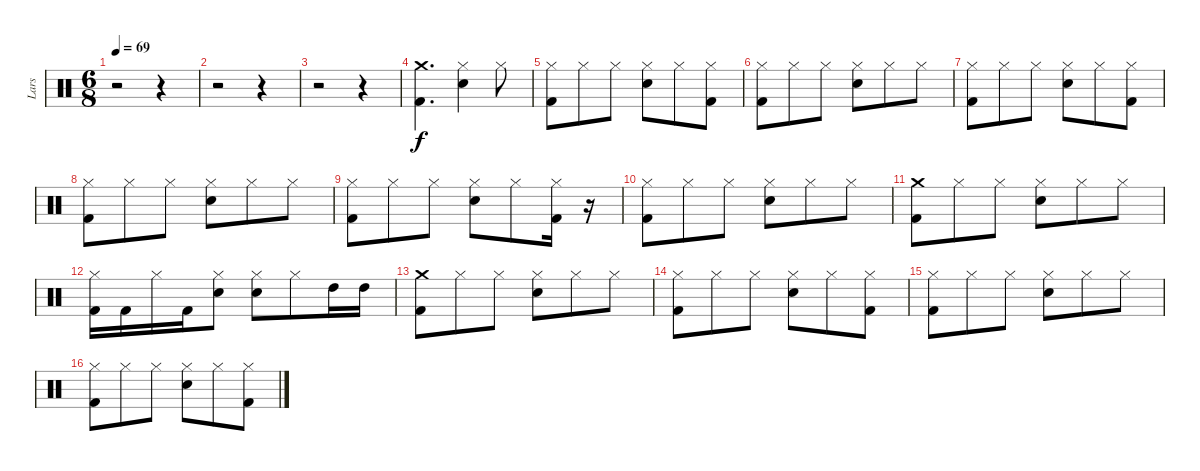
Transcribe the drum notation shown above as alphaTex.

\track ("Lars" "Lars") {instrument percussion}
\staff {score}
\articulation defaults
\ts (6 8)
\tempo 69
\clef neutral
\ks c
r.2{dy f} r.4 |
r.2 r.4 |
r.2 r.4 |
("Kick (hit) 2" "Crash medium (hit)").4{d} ("Snare (hit) 2" "Hi-Hat (closed)").4 "Hi-Hat (closed)".8 |
("Kick (hit) 2" "Hi-Hat (closed)").8 "Hi-Hat (closed)".8 "Hi-Hat (closed)".8 ("Snare (hit) 2" "Hi-Hat (closed)").8 "Hi-Hat (closed)".8 ("Kick (hit) 2" "Hi-Hat (closed)").8 |
("Kick (hit) 2" "Hi-Hat (closed)").8 "Hi-Hat (closed)".8 "Hi-Hat (closed)".8 ("Snare (hit) 2" "Hi-Hat (closed)").8 "Hi-Hat (closed)".8 "Hi-Hat (closed)".8 |
("Kick (hit) 2" "Hi-Hat (closed)").8 "Hi-Hat (closed)".8 "Hi-Hat (closed)".8 ("Snare (hit) 2" "Hi-Hat (closed)").8 "Hi-Hat (closed)".8 ("Kick (hit) 2" "Hi-Hat (closed)").8 |
("Kick (hit) 2" "Hi-Hat (closed)").8 "Hi-Hat (closed)".8 "Hi-Hat (closed)".8 ("Snare (hit) 2" "Hi-Hat (closed)").8 "Hi-Hat (closed)".8 "Hi-Hat (closed)".8 |
("Kick (hit) 2" "Hi-Hat (closed)").8 "Hi-Hat (closed)".8 "Hi-Hat (closed)".8 ("Snare (hit) 2" "Hi-Hat (closed)").8 "Hi-Hat (closed)".8 ("Kick (hit) 2" "Hi-Hat (closed)").16 r.16 |
("Kick (hit) 2" "Hi-Hat (closed)").8 "Hi-Hat (closed)".8 "Hi-Hat (closed)".8 ("Snare (hit) 2" "Hi-Hat (closed)").8 "Hi-Hat (closed)".8 "Hi-Hat (closed)".8 |
("Crash medium (hit)" "Kick (hit) 2").8 "Hi-Hat (closed)".8 "Hi-Hat (closed)".8 ("Snare (hit) 2" "Hi-Hat (closed)").8 "Hi-Hat (closed)".8 "Hi-Hat (closed)".8 |
("Kick (hit) 2" "Hi-Hat (closed)").16 "Kick (hit) 2".16 "Hi-Hat (closed)".16 "Kick (hit) 2".16 ("Snare (hit) 2" "Hi-Hat (closed)").8 ("Snare (hit) 2" "Hi-Hat (closed)").8 "Hi-Hat (closed)".8 "High Tom (hit)".16 "High Tom (hit)".16 |
("Kick (hit) 2" "Crash medium (hit)").8 "Hi-Hat (closed)".8 "Hi-Hat (closed)".8 ("Snare (hit) 2" "Hi-Hat (closed)").8 "Hi-Hat (closed)".8 "Hi-Hat (closed)".8 |
("Kick (hit) 2" "Hi-Hat (closed)").8 "Hi-Hat (closed)".8 "Hi-Hat (closed)".8 ("Snare (hit) 2" "Hi-Hat (closed)").8 "Hi-Hat (closed)".8 ("Kick (hit) 2" "Hi-Hat (closed)").8 |
("Kick (hit) 2" "Hi-Hat (closed)").8 "Hi-Hat (closed)".8 "Hi-Hat (closed)".8 ("Snare (hit) 2" "Hi-Hat (closed)").8 "Hi-Hat (closed)".8 "Hi-Hat (closed)".8 |
("Kick (hit) 2" "Hi-Hat (closed)").8 "Hi-Hat (closed)".8 "Hi-Hat (closed)".8 ("Snare (hit) 2" "Hi-Hat (closed)").8 "Hi-Hat (closed)".8 ("Kick (hit) 2" "Hi-Hat (closed)").8
